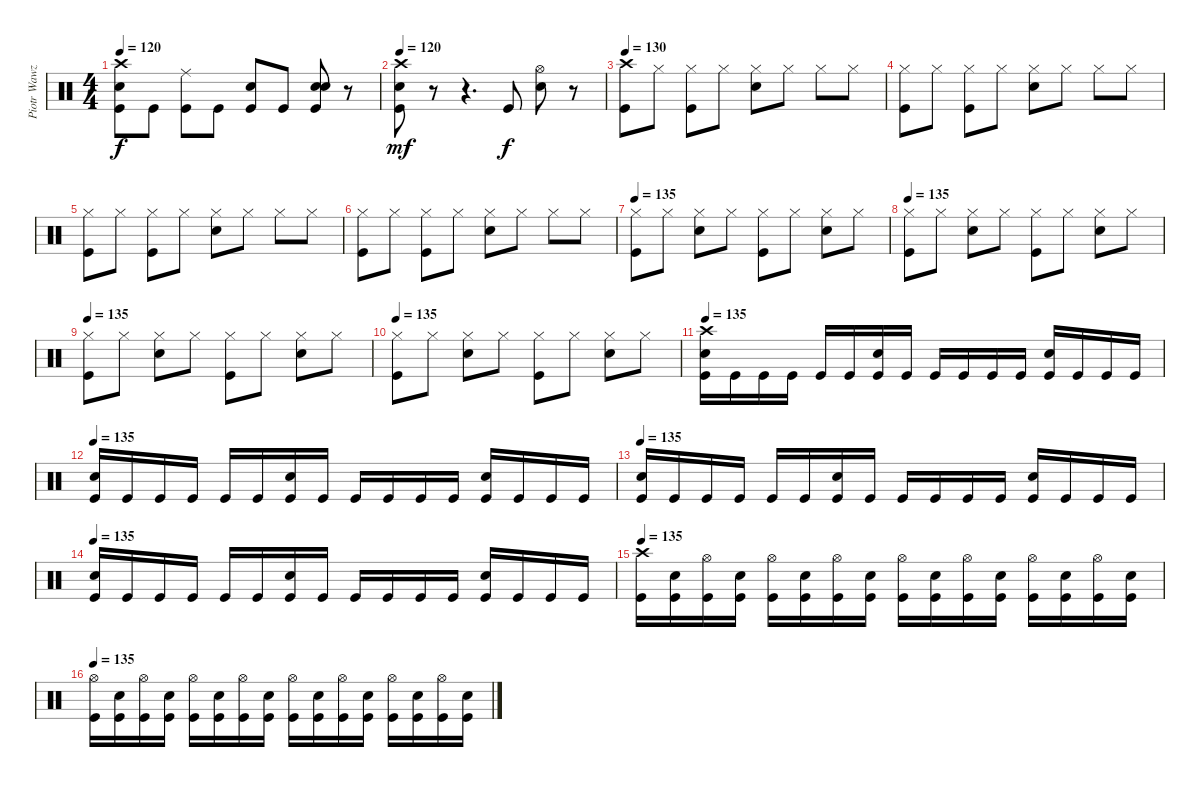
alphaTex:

\track ("Piotr Wawzeniuk (Drums)" "Piotr Wawz") {instrument percussion}
\staff {score}
\articulation defaults
\ts (4 4)
\tempo 120
\clef neutral
\ks c
("Kick (hit)" "Electric Snare (hit)" "Crash high (hit)").8{dy f} "Kick (hit)".8 ("Kick (hit)" "Ride (middle)").8 "Kick (hit)".8 ("Kick (hit)" "Electric Snare (hit)").8 "Kick (hit)".8 ("Kick (hit)" "Electric Snare (hit)" "Snare (hit) 2").8 r.8 |
\tempo 120
("Kick (hit)" "Electric Snare (hit)" "Crash high (hit)").8{dy mf} r.8 r.4{d} "Kick (hit)".8{dy f} ("Electric Snare (hit)" "Hi-Hat (open)").8 r.8 |
\tempo 130
("Kick (hit)" "Crash high (hit)").8 "Hi-Hat (closed)".8 ("Kick (hit)" "Hi-Hat (closed)").8 "Hi-Hat (closed)".8 ("Electric Snare (hit)" "Hi-Hat (closed)").8 "Hi-Hat (closed)".8 "Hi-Hat (closed)".8 "Hi-Hat (closed)".8 |
("Kick (hit)" "Hi-Hat (closed)").8 "Hi-Hat (closed)".8 ("Kick (hit)" "Hi-Hat (closed)").8 "Hi-Hat (closed)".8 ("Electric Snare (hit)" "Hi-Hat (closed)").8 "Hi-Hat (closed)".8 "Hi-Hat (closed)".8 "Hi-Hat (closed)".8 |
("Kick (hit)" "Hi-Hat (closed)").8 "Hi-Hat (closed)".8 ("Kick (hit)" "Hi-Hat (closed)").8 "Hi-Hat (closed)".8 ("Electric Snare (hit)" "Hi-Hat (closed)").8 "Hi-Hat (closed)".8 "Hi-Hat (closed)".8 "Hi-Hat (closed)".8 |
("Kick (hit)" "Hi-Hat (closed)").8 "Hi-Hat (closed)".8 ("Kick (hit)" "Hi-Hat (closed)").8 "Hi-Hat (closed)".8 ("Electric Snare (hit)" "Hi-Hat (closed)").8 "Hi-Hat (closed)".8 "Hi-Hat (closed)".8 "Hi-Hat (closed)".8 |
\tempo 135
("Kick (hit)" "Hi-Hat (closed)").8 "Hi-Hat (closed)".8 ("Electric Snare (hit)" "Hi-Hat (closed)").8 "Hi-Hat (closed)".8 ("Kick (hit)" "Hi-Hat (closed)").8 "Hi-Hat (closed)".8 ("Electric Snare (hit)" "Hi-Hat (closed)").8 "Hi-Hat (closed)".8 |
\tempo 135
("Kick (hit)" "Hi-Hat (closed)").8 "Hi-Hat (closed)".8 ("Electric Snare (hit)" "Hi-Hat (closed)").8 "Hi-Hat (closed)".8 ("Kick (hit)" "Hi-Hat (closed)").8 "Hi-Hat (closed)".8 ("Electric Snare (hit)" "Hi-Hat (closed)").8 "Hi-Hat (closed)".8 |
\tempo 135
("Kick (hit)" "Hi-Hat (closed)").8 "Hi-Hat (closed)".8 ("Electric Snare (hit)" "Hi-Hat (closed)").8 "Hi-Hat (closed)".8 ("Kick (hit)" "Hi-Hat (closed)").8 "Hi-Hat (closed)".8 ("Electric Snare (hit)" "Hi-Hat (closed)").8 "Hi-Hat (closed)".8 |
\tempo 135
("Kick (hit)" "Hi-Hat (closed)").8 "Hi-Hat (closed)".8 ("Electric Snare (hit)" "Hi-Hat (closed)").8 "Hi-Hat (closed)".8 ("Kick (hit)" "Hi-Hat (closed)").8 "Hi-Hat (closed)".8 ("Electric Snare (hit)" "Hi-Hat (closed)").8 "Hi-Hat (closed)".8 |
\tempo 135
("Kick (hit)" "Electric Snare (hit)" "Crash high (hit)").16 "Kick (hit)".16 "Kick (hit)".16 "Kick (hit)".16 "Kick (hit)".16 "Kick (hit)".16 ("Kick (hit)" "Electric Snare (hit)").16 "Kick (hit)".16 "Kick (hit)".16 "Kick (hit)".16 "Kick (hit)".16 "Kick (hit)".16 ("Kick (hit)" "Electric Snare (hit)").16 "Kick (hit)".16 "Kick (hit)".16 "Kick (hit)".16 |
\tempo 135
("Kick (hit)" "Electric Snare (hit)").16 "Kick (hit)".16 "Kick (hit)".16 "Kick (hit)".16 "Kick (hit)".16 "Kick (hit)".16 ("Kick (hit)" "Electric Snare (hit)").16 "Kick (hit)".16 "Kick (hit)".16 "Kick (hit)".16 "Kick (hit)".16 "Kick (hit)".16 ("Kick (hit)" "Electric Snare (hit)").16 "Kick (hit)".16 "Kick (hit)".16 "Kick (hit)".16 |
\tempo 135
("Kick (hit)" "Electric Snare (hit)").16 "Kick (hit)".16 "Kick (hit)".16 "Kick (hit)".16 "Kick (hit)".16 "Kick (hit)".16 ("Kick (hit)" "Electric Snare (hit)").16 "Kick (hit)".16 "Kick (hit)".16 "Kick (hit)".16 "Kick (hit)".16 "Kick (hit)".16 ("Kick (hit)" "Electric Snare (hit)").16 "Kick (hit)".16 "Kick (hit)".16 "Kick (hit)".16 |
\tempo 135
("Kick (hit)" "Electric Snare (hit)").16 "Kick (hit)".16 "Kick (hit)".16 "Kick (hit)".16 "Kick (hit)".16 "Kick (hit)".16 ("Kick (hit)" "Electric Snare (hit)").16 "Kick (hit)".16 "Kick (hit)".16 "Kick (hit)".16 "Kick (hit)".16 "Kick (hit)".16 ("Kick (hit)" "Electric Snare (hit)").16 "Kick (hit)".16 "Kick (hit)".16 "Kick (hit)".16 |
\tempo 135
("Kick (hit)" "Crash high (hit)").16 ("Kick (hit)" "Electric Snare (hit)").16 ("Kick (hit)" "Hi-Hat (open)").16 ("Kick (hit)" "Electric Snare (hit)").16 ("Kick (hit)" "Hi-Hat (open)").16 ("Kick (hit)" "Electric Snare (hit)").16 ("Kick (hit)" "Hi-Hat (open)").16 ("Kick (hit)" "Electric Snare (hit)").16 ("Kick (hit)" "Hi-Hat (open)").16 ("Kick (hit)" "Electric Snare (hit)").16 ("Kick (hit)" "Hi-Hat (open)").16 ("Kick (hit)" "Electric Snare (hit)").16 ("Kick (hit)" "Hi-Hat (open)").16 ("Kick (hit)" "Electric Snare (hit)").16 ("Kick (hit)" "Hi-Hat (open)").16 ("Kick (hit)" "Electric Snare (hit)").16 |
\tempo 135
("Kick (hit)" "Hi-Hat (open)").16 ("Kick (hit)" "Electric Snare (hit)").16 ("Kick (hit)" "Hi-Hat (open)").16 ("Kick (hit)" "Electric Snare (hit)").16 ("Kick (hit)" "Hi-Hat (open)").16 ("Kick (hit)" "Electric Snare (hit)").16 ("Kick (hit)" "Hi-Hat (open)").16 ("Kick (hit)" "Electric Snare (hit)").16 ("Kick (hit)" "Hi-Hat (open)").16 ("Kick (hit)" "Electric Snare (hit)").16 ("Kick (hit)" "Hi-Hat (open)").16 ("Kick (hit)" "Electric Snare (hit)").16 ("Kick (hit)" "Hi-Hat (open)").16 ("Kick (hit)" "Electric Snare (hit)").16 ("Kick (hit)" "Hi-Hat (open)").16 ("Kick (hit)" "Electric Snare (hit)").16
